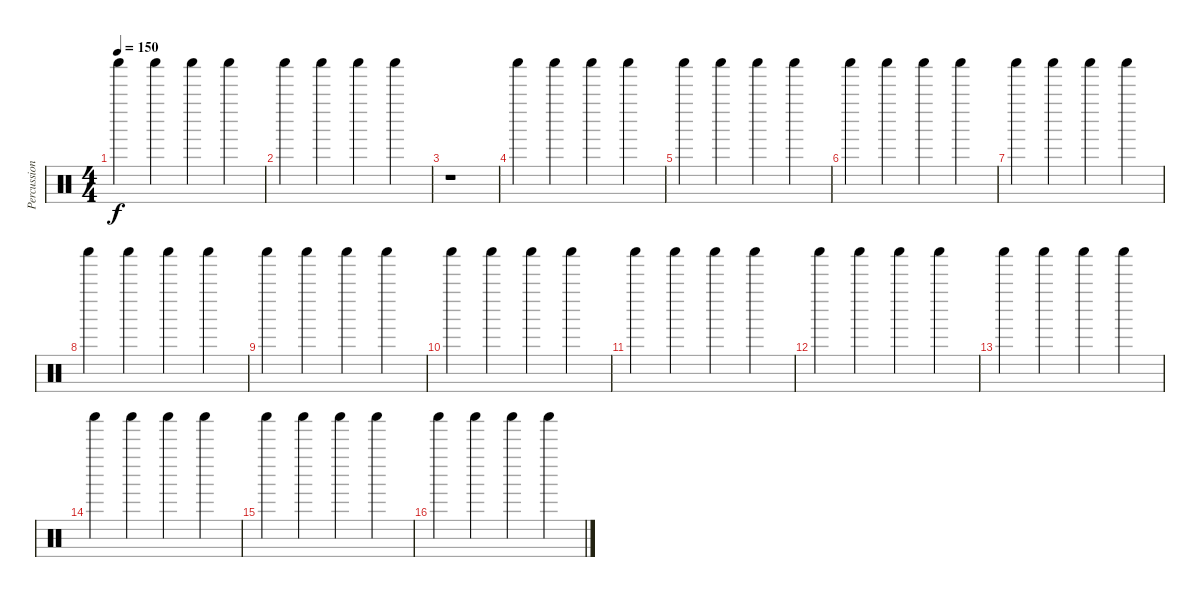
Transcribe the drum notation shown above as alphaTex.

\track ("Percussion - Aki Hakala" "Percussion") {instrument percussion}
\staff {score}
\articulation defaults
\ts (4 4)
\tempo 150
\clef neutral
\ks c "Shaker (hit)".4{dy f} "Shaker (hit)".4 "Shaker (hit)".4 "Shaker (hit)".4
|
"Shaker (hit)".4 "Shaker (hit)".4 "Shaker (hit)".4 "Shaker (hit)".4 |
r.1 |
"Shaker (hit)".4 "Shaker (hit)".4 "Shaker (hit)".4 "Shaker (hit)".4 |
"Shaker (hit)".4 "Shaker (hit)".4 "Shaker (hit)".4 "Shaker (hit)".4 |
"Shaker (hit)".4 "Shaker (hit)".4 "Shaker (hit)".4 "Shaker (hit)".4 |
"Shaker (hit)".4 "Shaker (hit)".4 "Shaker (hit)".4 "Shaker (hit)".4 |
"Shaker (hit)".4 "Shaker (hit)".4 "Shaker (hit)".4 "Shaker (hit)".4 |
"Shaker (hit)".4 "Shaker (hit)".4 "Shaker (hit)".4 "Shaker (hit)".4 |
"Shaker (hit)".4 "Shaker (hit)".4 "Shaker (hit)".4 "Shaker (hit)".4 |
"Shaker (hit)".4 "Shaker (hit)".4 "Shaker (hit)".4 "Shaker (hit)".4 |
"Shaker (hit)".4 "Shaker (hit)".4 "Shaker (hit)".4 "Shaker (hit)".4 |
"Shaker (hit)".4 "Shaker (hit)".4 "Shaker (hit)".4 "Shaker (hit)".4 |
"Shaker (hit)".4 "Shaker (hit)".4 "Shaker (hit)".4 "Shaker (hit)".4 |
"Shaker (hit)".4 "Shaker (hit)".4 "Shaker (hit)".4 "Shaker (hit)".4 |
"Shaker (hit)".4 "Shaker (hit)".4 "Shaker (hit)".4 "Shaker (hit)".4
